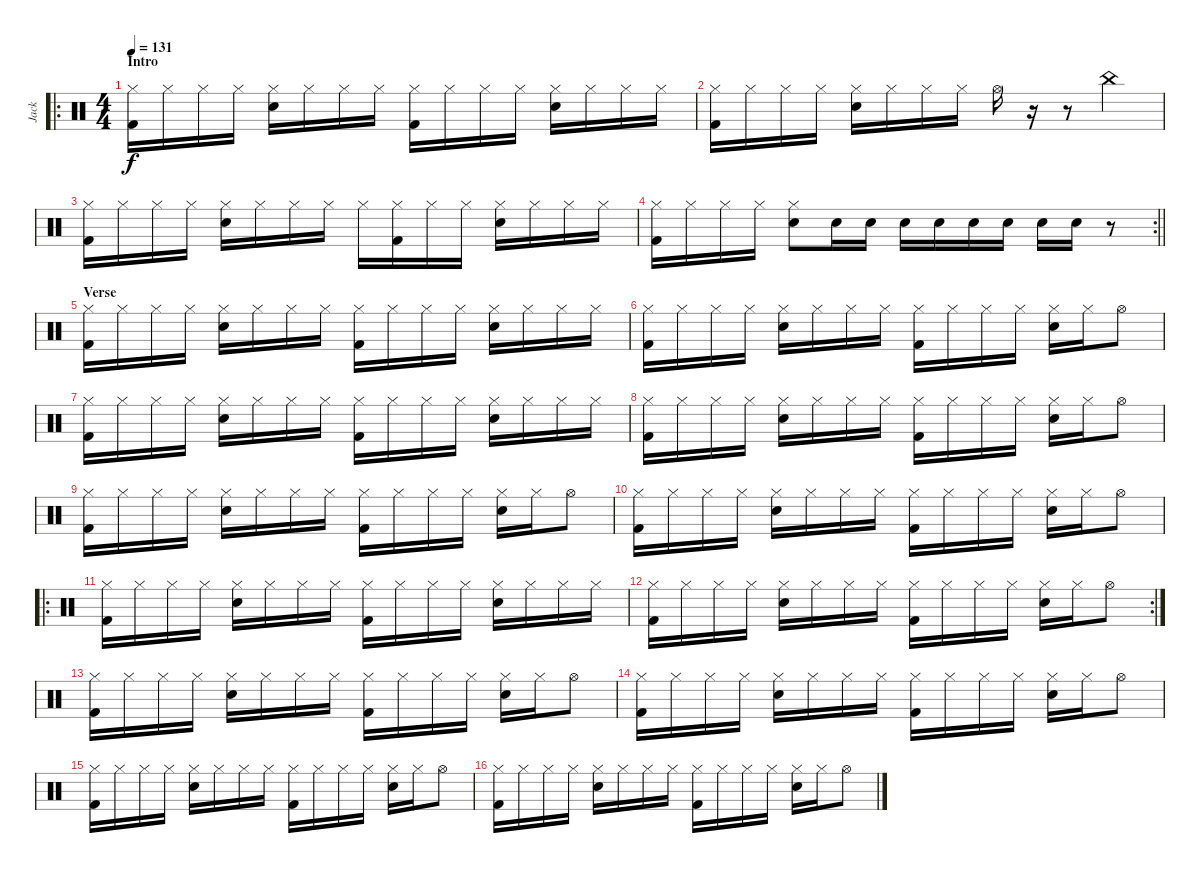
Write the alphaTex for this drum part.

\track ("Jack" "Jack") {instrument percussion}
\staff {score}
\articulation defaults
\ro
\ts (4 4)
\section ("" "Intro")
\tempo 131
\clef neutral
\ks c
("Hi-Hat (closed)" "Kick (hit) 2").16{dy f} "Hi-Hat (closed)".16 "Hi-Hat (closed)".16 "Hi-Hat (closed)".16 ("Hi-Hat (closed)" "Electric Snare (hit)").16 "Hi-Hat (closed)".16 "Hi-Hat (closed)".16 "Hi-Hat (closed)".16 ("Hi-Hat (closed)" "Kick (hit) 2").16 "Hi-Hat (closed)".16 "Hi-Hat (closed)".16 "Hi-Hat (closed)".16 ("Hi-Hat (closed)" "Electric Snare (hit)").16 "Hi-Hat (closed)".16 "Hi-Hat (closed)".16 "Hi-Hat (closed)".16 |
("Hi-Hat (closed)" "Kick (hit) 2").16 "Hi-Hat (closed)".16 "Hi-Hat (closed)".16 "Hi-Hat (closed)".16 ("Hi-Hat (closed)" "Electric Snare (hit)").16 "Hi-Hat (closed)".16 "Hi-Hat (closed)".16 "Hi-Hat (closed)".16 "Hi-Hat (open)".16 r.16 r.8 "China (hit)".4 |
("Hi-Hat (closed)" "Kick (hit) 2").16 "Hi-Hat (closed)".16 "Hi-Hat (closed)".16 "Hi-Hat (closed)".16 ("Hi-Hat (closed)" "Electric Snare (hit)").16 "Hi-Hat (closed)".16 "Hi-Hat (closed)".16 "Hi-Hat (closed)".16 "Hi-Hat (closed)".16 ("Hi-Hat (closed)" "Kick (hit) 2").16 "Hi-Hat (closed)".16 "Hi-Hat (closed)".16 ("Hi-Hat (closed)" "Electric Snare (hit)").16 "Hi-Hat (closed)".16 "Hi-Hat (closed)".16 "Hi-Hat (closed)".16 |
\rc 2
\barLineRight lightlight
("Hi-Hat (closed)" "Kick (hit) 2").16 "Hi-Hat (closed)".16 "Hi-Hat (closed)".16 "Hi-Hat (closed)".16 ("Hi-Hat (closed)" "Electric Snare (hit)").8 "Electric Snare (hit)".16 "Electric Snare (hit)".16 "Electric Snare (hit)".16 "Electric Snare (hit)".16 "Electric Snare (hit)".16 "Electric Snare (hit)".16 "Electric Snare (hit)".16 "Electric Snare (hit)".16 r.8 |
\section ("" "Verse")
("Hi-Hat (closed)" "Kick (hit) 2").16 "Hi-Hat (closed)".16 "Hi-Hat (closed)".16 "Hi-Hat (closed)".16 ("Hi-Hat (closed)" "Electric Snare (hit)").16 "Hi-Hat (closed)".16 "Hi-Hat (closed)".16 "Hi-Hat (closed)".16 ("Hi-Hat (closed)" "Kick (hit) 2").16 "Hi-Hat (closed)".16 "Hi-Hat (closed)".16 "Hi-Hat (closed)".16 ("Hi-Hat (closed)" "Electric Snare (hit)").16 "Hi-Hat (closed)".16 "Hi-Hat (closed)".16 "Hi-Hat (closed)".16 |
("Hi-Hat (closed)" "Kick (hit) 2").16 "Hi-Hat (closed)".16 "Hi-Hat (closed)".16 "Hi-Hat (closed)".16 ("Hi-Hat (closed)" "Electric Snare (hit)").16 "Hi-Hat (closed)".16 "Hi-Hat (closed)".16 "Hi-Hat (closed)".16 ("Hi-Hat (closed)" "Kick (hit) 2").16 "Hi-Hat (closed)".16 "Hi-Hat (closed)".16 "Hi-Hat (closed)".16 ("Hi-Hat (closed)" "Electric Snare (hit)").16 "Hi-Hat (closed)".16 "Hi-Hat (open)".8 |
("Hi-Hat (closed)" "Kick (hit) 2").16 "Hi-Hat (closed)".16 "Hi-Hat (closed)".16 "Hi-Hat (closed)".16 ("Hi-Hat (closed)" "Electric Snare (hit)").16 "Hi-Hat (closed)".16 "Hi-Hat (closed)".16 "Hi-Hat (closed)".16 ("Hi-Hat (closed)" "Kick (hit) 2").16 "Hi-Hat (closed)".16 "Hi-Hat (closed)".16 "Hi-Hat (closed)".16 ("Hi-Hat (closed)" "Electric Snare (hit)").16 "Hi-Hat (closed)".16 "Hi-Hat (closed)".16 "Hi-Hat (closed)".16 |
("Hi-Hat (closed)" "Kick (hit) 2").16 "Hi-Hat (closed)".16 "Hi-Hat (closed)".16 "Hi-Hat (closed)".16 ("Hi-Hat (closed)" "Electric Snare (hit)").16 "Hi-Hat (closed)".16 "Hi-Hat (closed)".16 "Hi-Hat (closed)".16 ("Hi-Hat (closed)" "Kick (hit) 2").16 "Hi-Hat (closed)".16 "Hi-Hat (closed)".16 "Hi-Hat (closed)".16 ("Hi-Hat (closed)" "Electric Snare (hit)").16 "Hi-Hat (closed)".16 "Hi-Hat (open)".8 |
("Hi-Hat (closed)" "Kick (hit) 2").16 "Hi-Hat (closed)".16 "Hi-Hat (closed)".16 "Hi-Hat (closed)".16 ("Hi-Hat (closed)" "Electric Snare (hit)").16 "Hi-Hat (closed)".16 "Hi-Hat (closed)".16 "Hi-Hat (closed)".16 ("Hi-Hat (closed)" "Kick (hit) 2").16 "Hi-Hat (closed)".16 "Hi-Hat (closed)".16 "Hi-Hat (closed)".16 ("Hi-Hat (closed)" "Electric Snare (hit)").16 "Hi-Hat (closed)".16 "Hi-Hat (open)".8 |
("Hi-Hat (closed)" "Kick (hit) 2").16 "Hi-Hat (closed)".16 "Hi-Hat (closed)".16 "Hi-Hat (closed)".16 ("Hi-Hat (closed)" "Electric Snare (hit)").16 "Hi-Hat (closed)".16 "Hi-Hat (closed)".16 "Hi-Hat (closed)".16 ("Hi-Hat (closed)" "Kick (hit) 2").16 "Hi-Hat (closed)".16 "Hi-Hat (closed)".16 "Hi-Hat (closed)".16 ("Hi-Hat (closed)" "Electric Snare (hit)").16 "Hi-Hat (closed)".16 "Hi-Hat (open)".8 |
\ro
("Hi-Hat (closed)" "Kick (hit) 2").16 "Hi-Hat (closed)".16 "Hi-Hat (closed)".16 "Hi-Hat (closed)".16 ("Hi-Hat (closed)" "Electric Snare (hit)").16 "Hi-Hat (closed)".16 "Hi-Hat (closed)".16 "Hi-Hat (closed)".16 ("Hi-Hat (closed)" "Kick (hit) 2").16 "Hi-Hat (closed)".16 "Hi-Hat (closed)".16 "Hi-Hat (closed)".16 ("Hi-Hat (closed)" "Electric Snare (hit)").16 "Hi-Hat (closed)".16 "Hi-Hat (closed)".16 "Hi-Hat (closed)".16 |
\rc 2
("Hi-Hat (closed)" "Kick (hit) 2").16 "Hi-Hat (closed)".16 "Hi-Hat (closed)".16 "Hi-Hat (closed)".16 ("Hi-Hat (closed)" "Electric Snare (hit)").16 "Hi-Hat (closed)".16 "Hi-Hat (closed)".16 "Hi-Hat (closed)".16 ("Hi-Hat (closed)" "Kick (hit) 2").16 "Hi-Hat (closed)".16 "Hi-Hat (closed)".16 "Hi-Hat (closed)".16 ("Hi-Hat (closed)" "Electric Snare (hit)").16 "Hi-Hat (closed)".16 "Hi-Hat (open)".8 |
("Hi-Hat (closed)" "Kick (hit) 2").16 "Hi-Hat (closed)".16 "Hi-Hat (closed)".16 "Hi-Hat (closed)".16 ("Hi-Hat (closed)" "Electric Snare (hit)").16 "Hi-Hat (closed)".16 "Hi-Hat (closed)".16 "Hi-Hat (closed)".16 ("Hi-Hat (closed)" "Kick (hit) 2").16 "Hi-Hat (closed)".16 "Hi-Hat (closed)".16 "Hi-Hat (closed)".16 ("Hi-Hat (closed)" "Electric Snare (hit)").16 "Hi-Hat (closed)".16 "Hi-Hat (open)".8 |
("Hi-Hat (closed)" "Kick (hit) 2").16 "Hi-Hat (closed)".16 "Hi-Hat (closed)".16 "Hi-Hat (closed)".16 ("Hi-Hat (closed)" "Electric Snare (hit)").16 "Hi-Hat (closed)".16 "Hi-Hat (closed)".16 "Hi-Hat (closed)".16 ("Hi-Hat (closed)" "Kick (hit) 2").16 "Hi-Hat (closed)".16 "Hi-Hat (closed)".16 "Hi-Hat (closed)".16 ("Hi-Hat (closed)" "Electric Snare (hit)").16 "Hi-Hat (closed)".16 "Hi-Hat (open)".8 |
("Hi-Hat (closed)" "Kick (hit) 2").16 "Hi-Hat (closed)".16 "Hi-Hat (closed)".16 "Hi-Hat (closed)".16 ("Hi-Hat (closed)" "Electric Snare (hit)").16 "Hi-Hat (closed)".16 "Hi-Hat (closed)".16 "Hi-Hat (closed)".16 ("Hi-Hat (closed)" "Kick (hit) 2").16 "Hi-Hat (closed)".16 "Hi-Hat (closed)".16 "Hi-Hat (closed)".16 ("Hi-Hat (closed)" "Electric Snare (hit)").16 "Hi-Hat (closed)".16 "Hi-Hat (open)".8 |
("Hi-Hat (closed)" "Kick (hit) 2").16 "Hi-Hat (closed)".16 "Hi-Hat (closed)".16 "Hi-Hat (closed)".16 ("Hi-Hat (closed)" "Electric Snare (hit)").16 "Hi-Hat (closed)".16 "Hi-Hat (closed)".16 "Hi-Hat (closed)".16 ("Hi-Hat (closed)" "Kick (hit) 2").16 "Hi-Hat (closed)".16 "Hi-Hat (closed)".16 "Hi-Hat (closed)".16 ("Hi-Hat (closed)" "Electric Snare (hit)").16 "Hi-Hat (closed)".16 "Hi-Hat (open)".8
